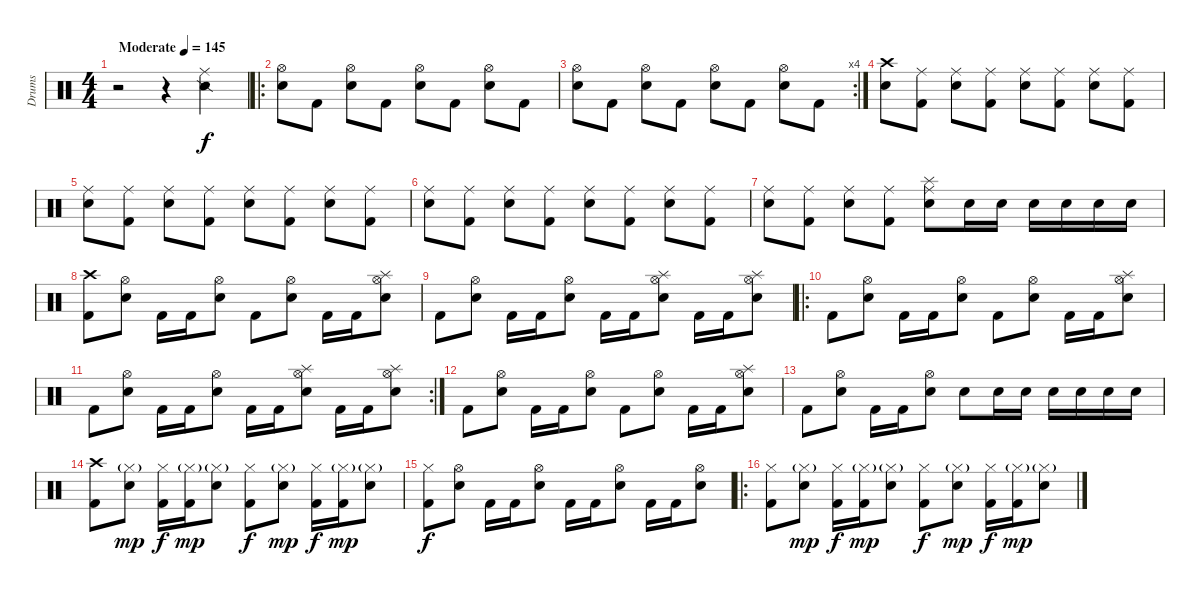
\track ("Drums" "Drums") {instrument percussion}
\staff {score}
\articulation defaults
\ts (4 4)
\tempo (145 "Moderate")
\clef neutral
\ks c
r.2{dy f} r.4 ("Ride (middle)" "Snare (side stick) 2").4 |
\ro
("Snare (hit) 2" "Hi-Hat (open)").8 "Kick (hit) 2".8 ("Snare (hit) 2" "Hi-Hat (open)").8 "Kick (hit) 2".8 ("Snare (hit) 2" "Hi-Hat (open)").8 "Kick (hit) 2".8 ("Snare (hit) 2" "Hi-Hat (open)").8 "Kick (hit) 2".8 |
\rc 4
("Snare (hit) 2" "Hi-Hat (open)").8 "Kick (hit) 2".8 ("Snare (hit) 2" "Hi-Hat (open)").8 "Kick (hit) 2".8 ("Snare (hit) 2" "Hi-Hat (open)").8 "Kick (hit) 2".8 ("Snare (hit) 2" "Hi-Hat (open)").8 "Kick (hit) 2".8 |
("Snare (hit) 2" "Crash high (hit)").8 ("Kick (hit) 2" "Ride (middle)").8 ("Snare (hit) 2" "Ride (middle)").8 ("Kick (hit) 2" "Ride (middle)").8 ("Snare (hit) 2" "Ride (middle)").8 ("Kick (hit) 2" "Ride (middle)").8 ("Snare (hit) 2" "Ride (middle)").8 ("Kick (hit) 2" "Ride (middle)").8 |
("Snare (hit) 2" "Ride (middle)").8 ("Kick (hit) 2" "Ride (middle)").8 ("Snare (hit) 2" "Ride (middle)").8 ("Kick (hit) 2" "Ride (middle)").8 ("Snare (hit) 2" "Ride (middle)").8 ("Kick (hit) 2" "Ride (middle)").8 ("Snare (hit) 2" "Ride (middle)").8 ("Kick (hit) 2" "Ride (middle)").8 |
("Snare (hit) 2" "Ride (middle)").8 ("Kick (hit) 2" "Ride (middle)").8 ("Snare (hit) 2" "Ride (middle)").8 ("Kick (hit) 2" "Ride (middle)").8 ("Snare (hit) 2" "Ride (middle)").8 ("Kick (hit) 2" "Ride (middle)").8 ("Snare (hit) 2" "Ride (middle)").8 ("Kick (hit) 2" "Ride (middle)").8 |
("Snare (hit) 2" "Ride (middle)").8 ("Kick (hit) 2" "Ride (middle)").8 ("Snare (hit) 2" "Ride (middle)").8 ("Kick (hit) 2" "Ride (middle)").8 ("Snare (hit) 2" "Splash (hit)" "Ride (middle)").8 "Snare (hit) 2".16 "Snare (hit) 2".16 "Snare (hit) 2".16 "Snare (hit) 2".16 "Snare (hit) 2".16 "Snare (hit) 2".16 |
("Kick (hit) 2" "Crash high (hit)").8 ("Snare (hit) 2" "Hi-Hat (open)").8 "Kick (hit) 2".16 "Kick (hit) 2".16 ("Snare (hit) 2" "Hi-Hat (open)").8 "Kick (hit) 2".8 ("Snare (hit) 2" "Hi-Hat (open)").8 "Kick (hit) 2".16 "Kick (hit) 2".16 ("Snare (hit) 2" "Splash (hit)" "Hi-Hat (open)").8 |
"Kick (hit) 2".8 ("Snare (hit) 2" "Hi-Hat (open)").8 "Kick (hit) 2".16 "Kick (hit) 2".16 ("Snare (hit) 2" "Hi-Hat (open)").8 "Kick (hit) 2".16 "Kick (hit) 2".16 ("Snare (hit) 2" "Splash (hit)" "Hi-Hat (open)").8 "Kick (hit) 2".16 "Kick (hit) 2".16 ("Snare (hit) 2" "Splash (hit)" "Hi-Hat (open)").8 |
\ro "Kick (hit) 2".8
("Snare (hit) 2" "Hi-Hat (open)").8 "Kick (hit) 2".16 "Kick (hit) 2".16 ("Snare (hit) 2" "Hi-Hat (open)").8 "Kick (hit) 2".8 ("Snare (hit) 2" "Hi-Hat (open)").8 "Kick (hit) 2".16 "Kick (hit) 2".16 ("Snare (hit) 2" "Splash (hit)" "Hi-Hat (open)").8 |
\rc 2 "Kick (hit) 2".8
("Snare (hit) 2" "Hi-Hat (open)").8 "Kick (hit) 2".16 "Kick (hit) 2".16 ("Snare (hit) 2" "Hi-Hat (open)").8 "Kick (hit) 2".16 "Kick (hit) 2".16 ("Snare (hit) 2" "Splash (hit)" "Hi-Hat (open)").8 "Kick (hit) 2".16 "Kick (hit) 2".16 ("Snare (hit) 2" "Splash (hit)" "Hi-Hat (open)").8 |
"Kick (hit) 2".8 ("Snare (hit) 2" "Hi-Hat (open)").8 "Kick (hit) 2".16 "Kick (hit) 2".16 ("Snare (hit) 2" "Hi-Hat (open)").8 "Kick (hit) 2".8 ("Snare (hit) 2" "Hi-Hat (open)").8 "Kick (hit) 2".16 "Kick (hit) 2".16 ("Snare (hit) 2" "Splash (hit)" "Hi-Hat (open)").8 |
"Kick (hit) 2".8 ("Snare (hit) 2" "Hi-Hat (open)").8 "Kick (hit) 2".16 "Kick (hit) 2".16 ("Snare (hit) 2" "Hi-Hat (open)").8 "Snare (hit) 2".8 "Snare (hit) 2".16 "Snare (hit) 2".16 "Snare (hit) 2".16 "Snare (hit) 2".16 "Snare (hit) 2".16 "Snare (hit) 2".16 |
("Kick (hit) 2" "Crash high (hit)").8 ("Snare (hit) 2" "Hi-Hat (closed)"{g}).8{dy mp} ("Kick (hit) 2" "Hi-Hat (closed)").16{dy f} ("Kick (hit) 2" "Hi-Hat (closed)"{g}).16{dy mp} ("Snare (hit) 2" "Hi-Hat (closed)"{g}).8 ("Kick (hit) 2" "Hi-Hat (closed)").8{dy f} ("Snare (hit) 2" "Hi-Hat (closed)"{g}).8{dy mp} ("Kick (hit) 2" "Hi-Hat (closed)").16{dy f} ("Kick (hit) 2" "Hi-Hat (closed)"{g}).16{dy mp} ("Snare (hit) 2" "Hi-Hat (closed)"{g}).8 |
("Kick (hit) 2" "Hi-Hat (closed)").8{dy f} ("Snare (hit) 2" "Hi-Hat (open)").8 "Kick (hit) 2".16 "Kick (hit) 2".16 ("Snare (hit) 2" "Hi-Hat (open)").8 "Kick (hit) 2".16 "Kick (hit) 2".16 ("Snare (hit) 2" "Hi-Hat (open)").8 "Kick (hit) 2".16 "Kick (hit) 2".16 ("Snare (hit) 2" "Hi-Hat (open)").8 |
\ro
("Kick (hit) 2" "Hi-Hat (closed)").8 ("Snare (hit) 2" "Hi-Hat (closed)"{g}).8{dy mp} ("Kick (hit) 2" "Hi-Hat (closed)").16{dy f} ("Kick (hit) 2" "Hi-Hat (closed)"{g}).16{dy mp} ("Snare (hit) 2" "Hi-Hat (closed)"{g}).8 ("Kick (hit) 2" "Hi-Hat (closed)").8{dy f} ("Snare (hit) 2" "Hi-Hat (closed)"{g}).8{dy mp} ("Kick (hit) 2" "Hi-Hat (closed)").16{dy f} ("Kick (hit) 2" "Hi-Hat (closed)"{g}).16{dy mp} ("Snare (hit) 2" "Hi-Hat (closed)"{g}).8
